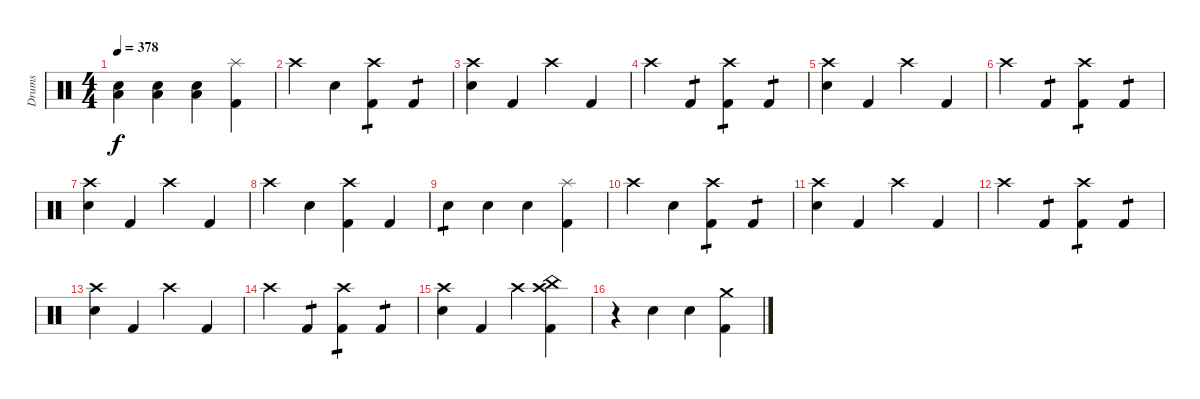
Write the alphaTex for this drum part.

\track ("Drums" "Drums") {instrument percussion}
\staff {score}
\articulation defaults
\ts (4 4)
\tempo 378
\clef neutral
\ks c
("Low Floor Tom (hit)" "Electric Snare (hit)").4{dy f} ("Low Floor Tom (hit)" "Electric Snare (hit)").4 ("Low Floor Tom (hit)" "Electric Snare (hit)").4 ("Splash (hit)" "Kick (hit) 2").4 |
"Crash high (hit)".4 "Electric Snare (hit)".4 ("Crash high (hit)" "Kick (hit) 2").4{tp 1} "Kick (hit) 2".4{tp 1} |
("Crash high (hit)" "Electric Snare (hit)").4 "Kick (hit) 2".4 "Crash high (hit)".4 "Kick (hit) 2".4 |
"Crash high (hit)".4 "Kick (hit) 2".4{tp 1} ("Crash high (hit)" "Kick (hit) 2").4{tp 1} "Kick (hit) 2".4{tp 1} |
("Crash high (hit)" "Electric Snare (hit)").4 "Kick (hit) 2".4 "Crash high (hit)".4 "Kick (hit) 2".4 |
"Crash high (hit)".4 "Kick (hit) 2".4{tp 1} ("Crash high (hit)" "Kick (hit) 2").4{tp 1} "Kick (hit) 2".4{tp 1} |
("Crash high (hit)" "Electric Snare (hit)").4 "Kick (hit) 2".4 "Crash high (hit)".4 "Kick (hit) 2".4 |
"Crash high (hit)".4 "Electric Snare (hit)".4 ("Crash high (hit)" "Kick (hit) 2").4 "Kick (hit) 2".4 |
"Electric Snare (hit)".4{tp 1} "Electric Snare (hit)".4 "Electric Snare (hit)".4 ("Splash (hit)" "Kick (hit) 2").4 |
"Crash high (hit)".4 "Electric Snare (hit)".4 ("Crash high (hit)" "Kick (hit) 2").4{tp 1} "Kick (hit) 2".4{tp 1} |
("Crash high (hit)" "Electric Snare (hit)").4 "Kick (hit) 2".4 "Crash high (hit)".4 "Kick (hit) 2".4 |
"Crash high (hit)".4 "Kick (hit) 2".4{tp 1} ("Crash high (hit)" "Kick (hit) 2").4{tp 1} "Kick (hit) 2".4{tp 1} |
("Crash high (hit)" "Electric Snare (hit)").4 "Kick (hit) 2".4 "Crash high (hit)".4 "Kick (hit) 2".4 |
"Crash high (hit)".4 "Kick (hit) 2".4{tp 1} ("Crash high (hit)" "Kick (hit) 2").4{tp 1} "Kick (hit) 2".4{tp 1} |
("Crash high (hit)" "Electric Snare (hit)").4 "Kick (hit) 2".4 "Crash high (hit)".4 ("China (hit)" "Crash high (hit)" "Kick (hit) 2").4 |
r.4 "Electric Snare (hit)".4 "Electric Snare (hit)".4 ("Crash medium (hit)" "Kick (hit) 2").4
